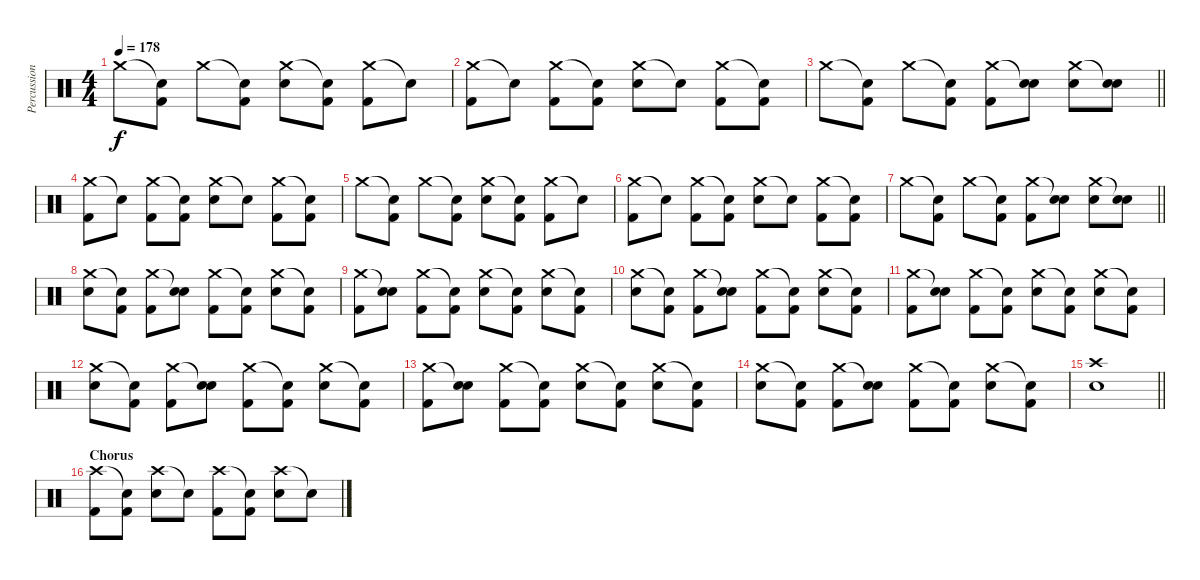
\track ("Percussion" "Percussion") {instrument percussion}
\staff {score}
\articulation defaults
\ts (4 4)
\tempo 178
\clef neutral
\ks c "Crash medium (hit)".8{dy f}
("Snare (hit)"{t} "Kick (hit) 2").8 "Crash medium (hit)".8 ("Snare (hit)"{t} "Kick (hit) 2").8 ("Crash medium (hit)" "Snare (hit) 2").8 ("Snare (hit)"{t} "Kick (hit) 2").8 ("Crash medium (hit)" "Kick (hit) 2").8 "Snare (hit)"{t}.8 |
("Crash medium (hit)" "Kick (hit) 2").8 "Snare (hit)"{t}.8 ("Crash medium (hit)" "Kick (hit) 2").8 ("Snare (hit)"{t} "Kick (hit) 2").8 ("Crash medium (hit)" "Snare (hit) 2").8 "Snare (hit)"{t}.8 ("Crash medium (hit)" "Kick (hit) 2").8 ("Snare (hit)"{t} "Kick (hit) 2").8 |
\barLineRight lightlight "Crash medium (hit)".8
("Snare (hit)"{t} "Kick (hit) 2").8 "Crash medium (hit)".8 ("Snare (hit)"{t} "Kick (hit) 2").8 ("Crash medium (hit)" "Kick (hit) 2").8 ("Snare (hit)"{t} "Snare (hit) 2").8 ("Crash medium (hit)" "Snare (hit) 2").8 ("Snare (hit)"{t} "Snare (hit) 2").8 |
("Crash medium (hit)" "Kick (hit) 2").8 "Snare (hit)"{t}.8 ("Crash medium (hit)" "Kick (hit) 2").8 ("Snare (hit)"{t} "Kick (hit) 2").8 ("Crash medium (hit)" "Snare (hit) 2").8 "Snare (hit)"{t}.8 ("Crash medium (hit)" "Kick (hit) 2").8 ("Snare (hit)"{t} "Kick (hit) 2").8 |
"Crash medium (hit)".8 ("Snare (hit)"{t} "Kick (hit) 2").8 "Crash medium (hit)".8 ("Snare (hit)"{t} "Kick (hit) 2").8 ("Crash medium (hit)" "Snare (hit) 2").8 ("Snare (hit)"{t} "Kick (hit) 2").8 ("Crash medium (hit)" "Kick (hit) 2").8 "Snare (hit)"{t}.8 |
("Crash medium (hit)" "Kick (hit) 2").8 "Snare (hit)"{t}.8 ("Crash medium (hit)" "Kick (hit) 2").8 ("Snare (hit)"{t} "Kick (hit) 2").8 ("Crash medium (hit)" "Snare (hit) 2").8 "Snare (hit)"{t}.8 ("Crash medium (hit)" "Kick (hit) 2").8 ("Snare (hit)"{t} "Kick (hit) 2").8 |
\barLineRight lightlight "Crash medium (hit)".8
("Snare (hit)"{t} "Kick (hit) 2").8 "Crash medium (hit)".8 ("Snare (hit)"{t} "Kick (hit) 2").8 ("Crash medium (hit)" "Kick (hit) 2").8 ("Snare (hit)"{t} "Snare (hit) 2").8 ("Crash medium (hit)" "Snare (hit) 2").8 ("Snare (hit)"{t} "Snare (hit) 2").8 |
("Crash medium (hit)" "Snare (hit) 2").8 ("Snare (hit)"{t} "Kick (hit) 2").8 ("Crash medium (hit)" "Kick (hit) 2").8 ("Snare (hit)"{t} "Snare (hit) 2").8 ("Crash medium (hit)" "Kick (hit) 2").8 ("Snare (hit)"{t} "Kick (hit) 2").8 ("Crash medium (hit)" "Snare (hit) 2").8 ("Snare (hit)"{t} "Kick (hit) 2").8 |
("Crash medium (hit)" "Kick (hit) 2").8 ("Snare (hit)"{t} "Snare (hit) 2").8 ("Crash medium (hit)" "Kick (hit) 2").8 ("Snare (hit)"{t} "Kick (hit) 2").8 ("Crash medium (hit)" "Snare (hit) 2").8 ("Snare (hit)"{t} "Kick (hit) 2").8 ("Crash medium (hit)" "Snare (hit) 2").8 ("Snare (hit)"{t} "Kick (hit) 2").8 |
("Crash medium (hit)" "Snare (hit) 2").8 ("Snare (hit)"{t} "Kick (hit) 2").8 ("Crash medium (hit)" "Kick (hit) 2").8 ("Snare (hit)"{t} "Snare (hit) 2").8 ("Crash medium (hit)" "Kick (hit) 2").8 ("Snare (hit)"{t} "Kick (hit) 2").8 ("Crash medium (hit)" "Snare (hit) 2").8 ("Snare (hit)"{t} "Kick (hit) 2").8 |
("Crash medium (hit)" "Kick (hit) 2").8 ("Snare (hit)"{t} "Snare (hit) 2").8 ("Crash medium (hit)" "Kick (hit) 2").8 ("Snare (hit)"{t} "Kick (hit) 2").8 ("Crash medium (hit)" "Snare (hit) 2").8 ("Snare (hit)"{t} "Kick (hit) 2").8 ("Crash medium (hit)" "Snare (hit) 2").8 ("Snare (hit)"{t} "Kick (hit) 2").8 |
("Crash medium (hit)" "Snare (hit) 2").8 ("Snare (hit)"{t} "Kick (hit) 2").8 ("Crash medium (hit)" "Kick (hit) 2").8 ("Snare (hit)"{t} "Snare (hit) 2").8 ("Crash medium (hit)" "Kick (hit) 2").8 ("Snare (hit)"{t} "Kick (hit) 2").8 ("Crash medium (hit)" "Snare (hit) 2").8 ("Snare (hit)"{t} "Kick (hit) 2").8 |
("Crash medium (hit)" "Kick (hit) 2").8 ("Snare (hit)"{t} "Snare (hit) 2").8 ("Crash medium (hit)" "Kick (hit) 2").8 ("Snare (hit)"{t} "Kick (hit) 2").8 ("Crash medium (hit)" "Snare (hit) 2").8 ("Snare (hit)"{t} "Kick (hit) 2").8 ("Crash medium (hit)" "Snare (hit) 2").8 ("Snare (hit)"{t} "Kick (hit) 2").8 |
("Crash medium (hit)" "Snare (hit) 2").8 ("Snare (hit)"{t} "Kick (hit) 2").8 ("Crash medium (hit)" "Kick (hit) 2").8 ("Snare (hit)"{t} "Snare (hit) 2").8 ("Crash medium (hit)" "Kick (hit) 2").8 ("Snare (hit)"{t} "Kick (hit) 2").8 ("Crash medium (hit)" "Snare (hit) 2").8 ("Snare (hit)"{t} "Kick (hit) 2").8 |
\barLineRight lightlight
("Crash high (hit)" "Snare (hit) 2").1 |
\section ("" "Chorus")
("Crash high (hit)" "Kick (hit) 2").8 ("Snare (hit)"{t} "Kick (hit) 2").8 ("Crash high (hit)" "Snare (hit) 2").8 "Snare (hit)"{t}.8 ("Crash high (hit)" "Kick (hit) 2").8 ("Snare (hit)"{t} "Kick (hit) 2").8 ("Crash high (hit)" "Snare (hit) 2").8 "Snare (hit)"{t}.8
